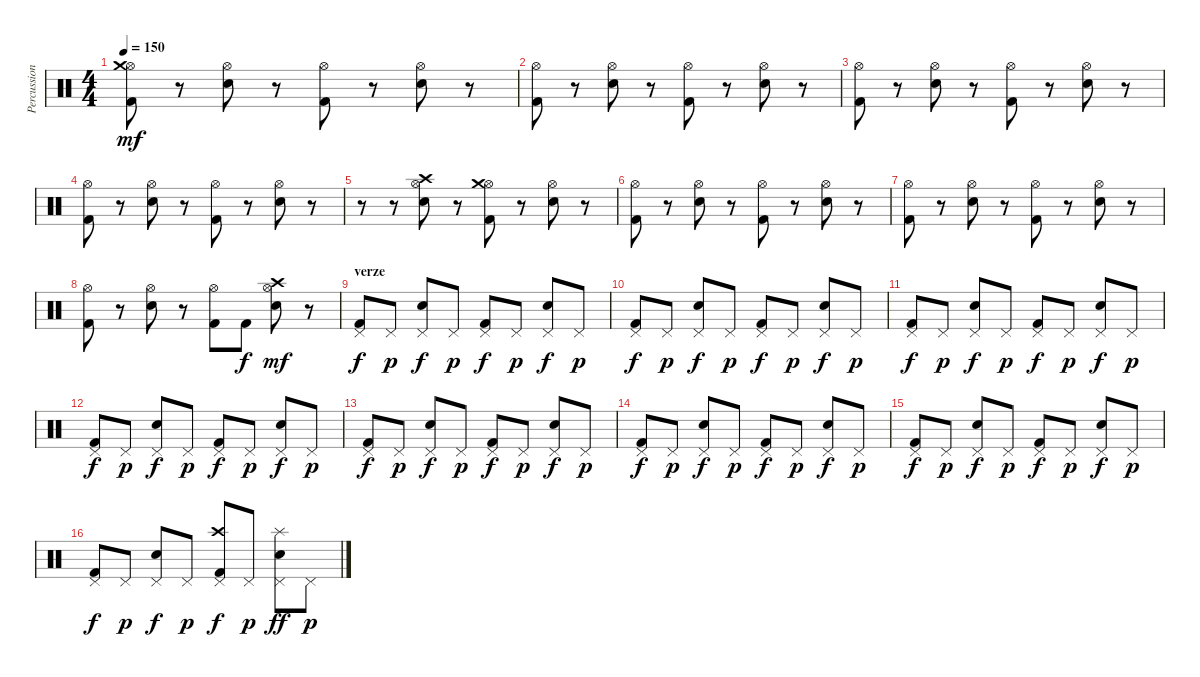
\track ("Percussion" "Percussion") {instrument percussion}
\staff {score}
\articulation defaults
\ts (4 4)
\tempo 150
\clef neutral
\ks c
("Hi-Hat (open)" "Crash medium (hit)" "Kick (hit) 2").8{dy mf} r.8 ("Hi-Hat (open)" "Snare (hit) 2").8 r.8 ("Hi-Hat (open)" "Kick (hit) 2").8 r.8 ("Hi-Hat (open)" "Snare (hit) 2").8 r.8 |
("Hi-Hat (open)" "Kick (hit) 2").8 r.8 ("Hi-Hat (open)" "Snare (hit) 2").8 r.8 ("Hi-Hat (open)" "Kick (hit) 2").8 r.8 ("Hi-Hat (open)" "Snare (hit) 2").8 r.8 |
("Hi-Hat (open)" "Kick (hit) 2").8 r.8 ("Hi-Hat (open)" "Snare (hit) 2").8 r.8 ("Hi-Hat (open)" "Kick (hit) 2").8 r.8 ("Hi-Hat (open)" "Snare (hit) 2").8 r.8 |
("Hi-Hat (open)" "Kick (hit) 2").8 r.8 ("Hi-Hat (open)" "Snare (hit) 2").8 r.8 ("Hi-Hat (open)" "Kick (hit) 2").8 r.8 ("Hi-Hat (open)" "Snare (hit) 2").8 r.8 |
r.8 r.8 ("Hi-Hat (open)" "Crash high (hit)" "Snare (hit) 2").8 r.8 ("Hi-Hat (open)" "Crash medium (hit)" "Kick (hit) 2").8 r.8 ("Hi-Hat (open)" "Snare (hit) 2").8 r.8 |
("Hi-Hat (open)" "Kick (hit) 2").8 r.8 ("Hi-Hat (open)" "Snare (hit) 2").8 r.8 ("Hi-Hat (open)" "Kick (hit) 2").8 r.8 ("Hi-Hat (open)" "Snare (hit) 2").8 r.8 |
("Hi-Hat (open)" "Kick (hit) 2").8 r.8 ("Hi-Hat (open)" "Snare (hit) 2").8 r.8 ("Hi-Hat (open)" "Kick (hit) 2").8 r.8 ("Hi-Hat (open)" "Snare (hit) 2").8 r.8 |
("Hi-Hat (open)" "Kick (hit) 2").8 r.8 ("Hi-Hat (open)" "Snare (hit) 2").8 r.8 ("Hi-Hat (open)" "Kick (hit) 2").8 "Kick (hit) 2".8{dy f} ("Hi-Hat (open)" "Crash high (hit)" "Snare (hit) 2").8{dy mf} r.8 |
\section ("" "verze")
("Pedal Hi-Hat (hit)" "Kick (hit) 2").8{dy f} "Pedal Hi-Hat (hit)".8{dy p} ("Pedal Hi-Hat (hit)" "Snare (hit) 2").8{dy f} "Pedal Hi-Hat (hit)".8{dy p} ("Pedal Hi-Hat (hit)" "Kick (hit) 2").8{dy f} "Pedal Hi-Hat (hit)".8{dy p} ("Pedal Hi-Hat (hit)" "Snare (hit) 2").8{dy f} "Pedal Hi-Hat (hit)".8{dy p} |
("Pedal Hi-Hat (hit)" "Kick (hit) 2").8{dy f} "Pedal Hi-Hat (hit)".8{dy p} ("Pedal Hi-Hat (hit)" "Snare (hit) 2").8{dy f} "Pedal Hi-Hat (hit)".8{dy p} ("Pedal Hi-Hat (hit)" "Kick (hit) 2").8{dy f} "Pedal Hi-Hat (hit)".8{dy p} ("Pedal Hi-Hat (hit)" "Snare (hit) 2").8{dy f} "Pedal Hi-Hat (hit)".8{dy p} |
("Pedal Hi-Hat (hit)" "Kick (hit) 2").8{dy f} "Pedal Hi-Hat (hit)".8{dy p} ("Pedal Hi-Hat (hit)" "Snare (hit) 2").8{dy f} "Pedal Hi-Hat (hit)".8{dy p} ("Pedal Hi-Hat (hit)" "Kick (hit) 2").8{dy f} "Pedal Hi-Hat (hit)".8{dy p} ("Pedal Hi-Hat (hit)" "Snare (hit) 2").8{dy f} "Pedal Hi-Hat (hit)".8{dy p} |
("Pedal Hi-Hat (hit)" "Kick (hit) 2").8{dy f} "Pedal Hi-Hat (hit)".8{dy p} ("Pedal Hi-Hat (hit)" "Snare (hit) 2").8{dy f} "Pedal Hi-Hat (hit)".8{dy p} ("Pedal Hi-Hat (hit)" "Kick (hit) 2").8{dy f} "Pedal Hi-Hat (hit)".8{dy p} ("Pedal Hi-Hat (hit)" "Snare (hit) 2").8{dy f} "Pedal Hi-Hat (hit)".8{dy p} |
("Pedal Hi-Hat (hit)" "Kick (hit) 2").8{dy f} "Pedal Hi-Hat (hit)".8{dy p} ("Pedal Hi-Hat (hit)" "Snare (hit) 2").8{dy f} "Pedal Hi-Hat (hit)".8{dy p} ("Pedal Hi-Hat (hit)" "Kick (hit) 2").8{dy f} "Pedal Hi-Hat (hit)".8{dy p} ("Pedal Hi-Hat (hit)" "Snare (hit) 2").8{dy f} "Pedal Hi-Hat (hit)".8{dy p} |
("Pedal Hi-Hat (hit)" "Kick (hit) 2").8{dy f} "Pedal Hi-Hat (hit)".8{dy p} ("Pedal Hi-Hat (hit)" "Snare (hit) 2").8{dy f} "Pedal Hi-Hat (hit)".8{dy p} ("Pedal Hi-Hat (hit)" "Kick (hit) 2").8{dy f} "Pedal Hi-Hat (hit)".8{dy p} ("Pedal Hi-Hat (hit)" "Snare (hit) 2").8{dy f} "Pedal Hi-Hat (hit)".8{dy p} |
("Pedal Hi-Hat (hit)" "Kick (hit) 2").8{dy f} "Pedal Hi-Hat (hit)".8{dy p} ("Pedal Hi-Hat (hit)" "Snare (hit) 2").8{dy f} "Pedal Hi-Hat (hit)".8{dy p} ("Pedal Hi-Hat (hit)" "Kick (hit) 2").8{dy f} "Pedal Hi-Hat (hit)".8{dy p} ("Pedal Hi-Hat (hit)" "Snare (hit) 2").8{dy f} "Pedal Hi-Hat (hit)".8{dy p} |
("Pedal Hi-Hat (hit)" "Kick (hit) 2").8{dy f} "Pedal Hi-Hat (hit)".8{dy p} ("Pedal Hi-Hat (hit)" "Snare (hit) 2").8{dy f} "Pedal Hi-Hat (hit)".8{dy p} ("Pedal Hi-Hat (hit)" "Crash high (hit)" "Kick (hit) 2").8{dy f} "Pedal Hi-Hat (hit)".8{dy p} ("Pedal Hi-Hat (hit)" "Splash (hit)" "Snare (hit) 2").8{dy ff} "Pedal Hi-Hat (hit)".8{dy p}
